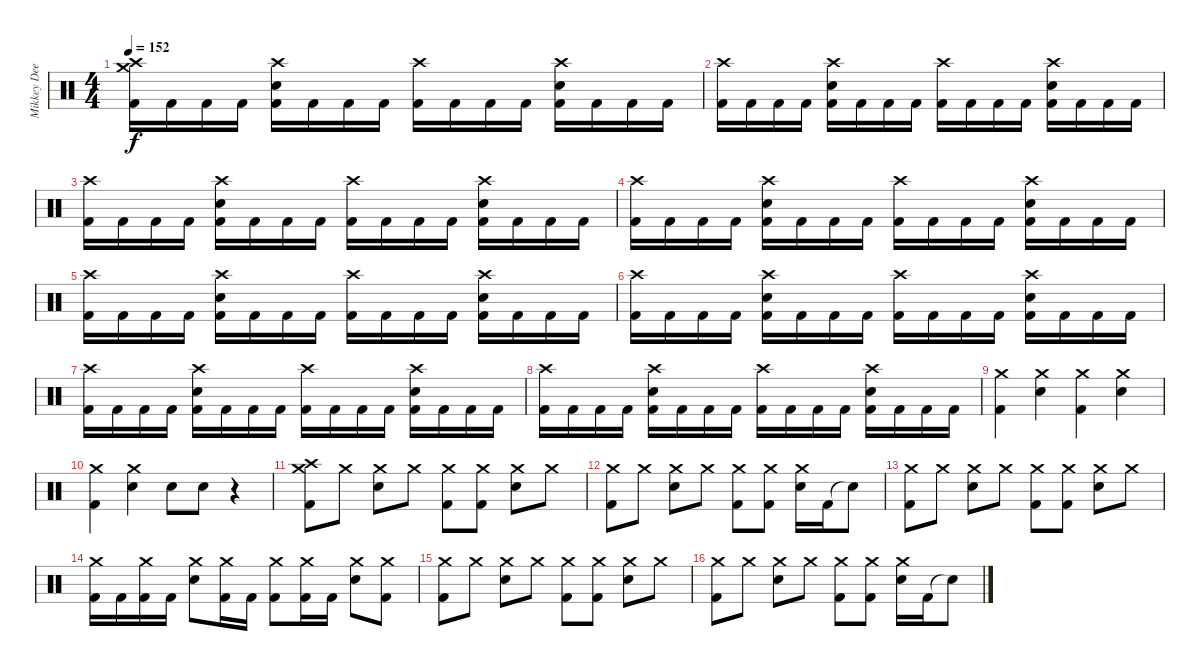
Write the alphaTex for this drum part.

\track ("Mikkey Dee" "Mikkey Dee") {instrument percussion}
\staff {score}
\articulation defaults
\ts (4 4)
\tempo 152
\clef neutral
\ks c
("Crash high (hit)" "Crash medium (hit)" "Kick (hit) 2").16{dy f} "Kick (hit) 2".16 "Kick (hit) 2".16 "Kick (hit) 2".16 ("Crash high (hit)" "Snare (hit) 2" "Kick (hit) 2").16 "Kick (hit) 2".16 "Kick (hit) 2".16 "Kick (hit) 2".16 ("Crash high (hit)" "Kick (hit) 2").16 "Kick (hit) 2".16 "Kick (hit) 2".16 "Kick (hit) 2".16 ("Crash high (hit)" "Snare (hit) 2" "Kick (hit) 2").16 "Kick (hit) 2".16 "Kick (hit) 2".16 "Kick (hit) 2".16 |
("Crash high (hit)" "Kick (hit) 2").16 "Kick (hit) 2".16 "Kick (hit) 2".16 "Kick (hit) 2".16 ("Crash high (hit)" "Snare (hit) 2" "Kick (hit) 2").16 "Kick (hit) 2".16 "Kick (hit) 2".16 "Kick (hit) 2".16 ("Crash high (hit)" "Kick (hit) 2").16 "Kick (hit) 2".16 "Kick (hit) 2".16 "Kick (hit) 2".16 ("Crash high (hit)" "Snare (hit) 2" "Kick (hit) 2").16 "Kick (hit) 2".16 "Kick (hit) 2".16 "Kick (hit) 2".16 |
("Crash high (hit)" "Kick (hit) 2").16 "Kick (hit) 2".16 "Kick (hit) 2".16 "Kick (hit) 2".16 ("Crash high (hit)" "Snare (hit) 2" "Kick (hit) 2").16 "Kick (hit) 2".16 "Kick (hit) 2".16 "Kick (hit) 2".16 ("Crash high (hit)" "Kick (hit) 2").16 "Kick (hit) 2".16 "Kick (hit) 2".16 "Kick (hit) 2".16 ("Crash high (hit)" "Snare (hit) 2" "Kick (hit) 2").16 "Kick (hit) 2".16 "Kick (hit) 2".16 "Kick (hit) 2".16 |
("Crash high (hit)" "Kick (hit) 2").16 "Kick (hit) 2".16 "Kick (hit) 2".16 "Kick (hit) 2".16 ("Crash high (hit)" "Snare (hit) 2" "Kick (hit) 2").16 "Kick (hit) 2".16 "Kick (hit) 2".16 "Kick (hit) 2".16 ("Crash high (hit)" "Kick (hit) 2").16 "Kick (hit) 2".16 "Kick (hit) 2".16 "Kick (hit) 2".16 ("Crash high (hit)" "Snare (hit) 2" "Kick (hit) 2").16 "Kick (hit) 2".16 "Kick (hit) 2".16 "Kick (hit) 2".16 |
("Crash high (hit)" "Kick (hit) 2").16 "Kick (hit) 2".16 "Kick (hit) 2".16 "Kick (hit) 2".16 ("Crash high (hit)" "Snare (hit) 2" "Kick (hit) 2").16 "Kick (hit) 2".16 "Kick (hit) 2".16 "Kick (hit) 2".16 ("Crash high (hit)" "Kick (hit) 2").16 "Kick (hit) 2".16 "Kick (hit) 2".16 "Kick (hit) 2".16 ("Crash high (hit)" "Snare (hit) 2" "Kick (hit) 2").16 "Kick (hit) 2".16 "Kick (hit) 2".16 "Kick (hit) 2".16 |
("Crash high (hit)" "Kick (hit) 2").16 "Kick (hit) 2".16 "Kick (hit) 2".16 "Kick (hit) 2".16 ("Crash high (hit)" "Snare (hit) 2" "Kick (hit) 2").16 "Kick (hit) 2".16 "Kick (hit) 2".16 "Kick (hit) 2".16 ("Crash high (hit)" "Kick (hit) 2").16 "Kick (hit) 2".16 "Kick (hit) 2".16 "Kick (hit) 2".16 ("Crash high (hit)" "Snare (hit) 2" "Kick (hit) 2").16 "Kick (hit) 2".16 "Kick (hit) 2".16 "Kick (hit) 2".16 |
("Crash high (hit)" "Kick (hit) 2").16 "Kick (hit) 2".16 "Kick (hit) 2".16 "Kick (hit) 2".16 ("Crash high (hit)" "Snare (hit) 2" "Kick (hit) 2").16 "Kick (hit) 2".16 "Kick (hit) 2".16 "Kick (hit) 2".16 ("Crash high (hit)" "Kick (hit) 2").16 "Kick (hit) 2".16 "Kick (hit) 2".16 "Kick (hit) 2".16 ("Crash high (hit)" "Snare (hit) 2" "Kick (hit) 2").16 "Kick (hit) 2".16 "Kick (hit) 2".16 "Kick (hit) 2".16 |
("Crash high (hit)" "Kick (hit) 2").16 "Kick (hit) 2".16 "Kick (hit) 2".16 "Kick (hit) 2".16 ("Crash high (hit)" "Snare (hit) 2" "Kick (hit) 2").16 "Kick (hit) 2".16 "Kick (hit) 2".16 "Kick (hit) 2".16 ("Crash high (hit)" "Kick (hit) 2").16 "Kick (hit) 2".16 "Kick (hit) 2".16 "Kick (hit) 2".16 ("Crash high (hit)" "Snare (hit) 2" "Kick (hit) 2").16 "Kick (hit) 2".16 "Kick (hit) 2".16 "Kick (hit) 2".16 |
("Crash medium (hit)" "Kick (hit) 2").4 ("Crash medium (hit)" "Snare (hit) 2").4 ("Crash medium (hit)" "Kick (hit) 2").4 ("Crash medium (hit)" "Snare (hit) 2").4 |
("Crash medium (hit)" "Kick (hit) 2").4 ("Crash medium (hit)" "Snare (hit) 2").4 "Snare (hit) 2".8 "Snare (hit) 2".8 r.4 |
("Crash medium (hit)" "Crash high (hit)" "Kick (hit) 2").8 "Crash medium (hit)".8 ("Crash medium (hit)" "Snare (hit) 2").8 "Crash medium (hit)".8 ("Crash medium (hit)" "Kick (hit) 2").8 ("Crash medium (hit)" "Kick (hit) 2").8 ("Crash medium (hit)" "Snare (hit) 2").8 "Crash medium (hit)".8 |
("Crash medium (hit)" "Kick (hit) 2").8 "Crash medium (hit)".8 ("Crash medium (hit)" "Snare (hit) 2").8 "Crash medium (hit)".8 ("Crash medium (hit)" "Kick (hit) 2").8 ("Crash medium (hit)" "Kick (hit) 2").8 ("Crash medium (hit)" "Snare (hit) 2").16 "Kick (hit) 2".16 "Snare (hit)"{t}.8 |
("Crash medium (hit)" "Kick (hit) 2").8 "Crash medium (hit)".8 ("Crash medium (hit)" "Snare (hit) 2").8 "Crash medium (hit)".8 ("Crash medium (hit)" "Kick (hit) 2").8 ("Crash medium (hit)" "Kick (hit) 2").8 ("Crash medium (hit)" "Snare (hit) 2").8 "Crash medium (hit)".8 |
("Crash medium (hit)" "Kick (hit) 2").16 "Kick (hit) 2".16 ("Crash medium (hit)" "Kick (hit) 2").16 "Kick (hit) 2".16 ("Crash medium (hit)" "Snare (hit) 2").8 ("Crash medium (hit)" "Kick (hit) 2").16 "Kick (hit) 2".16 ("Crash medium (hit)" "Kick (hit) 2").8 ("Crash medium (hit)" "Kick (hit) 2").16 "Kick (hit) 2".16 ("Crash medium (hit)" "Snare (hit) 2").8 ("Crash medium (hit)" "Kick (hit) 2").8 |
("Crash medium (hit)" "Kick (hit) 2").8 "Crash medium (hit)".8 ("Crash medium (hit)" "Snare (hit) 2").8 "Crash medium (hit)".8 ("Crash medium (hit)" "Kick (hit) 2").8 ("Crash medium (hit)" "Kick (hit) 2").8 ("Crash medium (hit)" "Snare (hit) 2").8 "Crash medium (hit)".8 |
("Crash medium (hit)" "Kick (hit) 2").8 "Crash medium (hit)".8 ("Crash medium (hit)" "Snare (hit) 2").8 "Crash medium (hit)".8 ("Crash medium (hit)" "Kick (hit) 2").8 ("Crash medium (hit)" "Kick (hit) 2").8 ("Crash medium (hit)" "Snare (hit) 2").16 "Kick (hit) 2".16 "Snare (hit)"{t}.8
